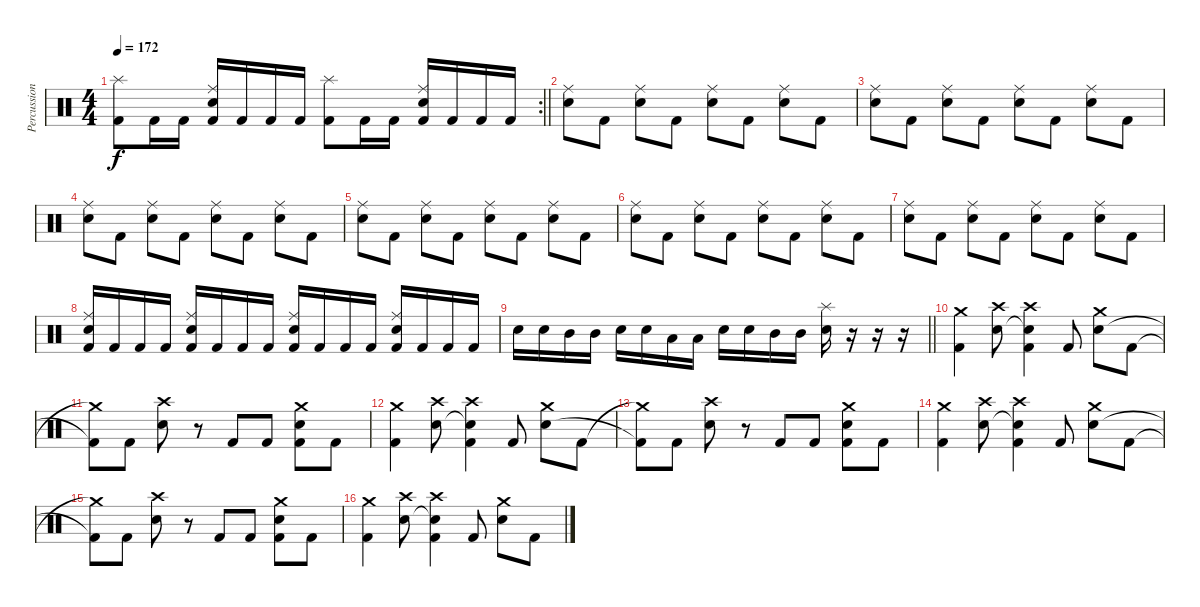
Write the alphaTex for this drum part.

\track ("Percussion" "Percussion") {instrument percussion}
\staff {score}
\articulation defaults
\rc 2
\ts (4 4)
\tempo 172
\clef neutral
\barLineRight lightlight
\ks c
("Splash (hit)" "Kick (hit) 2").8{dy f} "Kick (hit) 2".16 "Kick (hit) 2".16 ("Ride (middle)" "Electric Snare (hit)" "Kick (hit) 2").16 "Kick (hit) 2".16 "Kick (hit) 2".16 "Kick (hit) 2".16 ("Splash (hit)" "Kick (hit) 2").8 "Kick (hit) 2".16 "Kick (hit) 2".16 ("Ride (middle)" "Electric Snare (hit)" "Kick (hit) 2").16 "Kick (hit) 2".16 "Kick (hit) 2".16 "Kick (hit) 2".16 |
("Ride (middle)" "Electric Snare (hit)").8 "Kick (hit) 2".8 ("Ride (middle)" "Electric Snare (hit)").8 "Kick (hit) 2".8 ("Ride (middle)" "Electric Snare (hit)").8 "Kick (hit) 2".8 ("Ride (middle)" "Electric Snare (hit)").8 "Kick (hit) 2".8 |
("Ride (middle)" "Electric Snare (hit)").8 "Kick (hit) 2".8 ("Ride (middle)" "Electric Snare (hit)").8 "Kick (hit) 2".8 ("Ride (middle)" "Electric Snare (hit)").8 "Kick (hit) 2".8 ("Ride (middle)" "Electric Snare (hit)").8 "Kick (hit) 2".8 |
("Ride (middle)" "Electric Snare (hit)").8 "Kick (hit) 2".8 ("Ride (middle)" "Electric Snare (hit)").8 "Kick (hit) 2".8 ("Ride (middle)" "Electric Snare (hit)").8 "Kick (hit) 2".8 ("Ride (middle)" "Electric Snare (hit)").8 "Kick (hit) 2".8 |
("Ride (middle)" "Electric Snare (hit)").8 "Kick (hit) 2".8 ("Ride (middle)" "Electric Snare (hit)").8 "Kick (hit) 2".8 ("Ride (middle)" "Electric Snare (hit)").8 "Kick (hit) 2".8 ("Ride (middle)" "Electric Snare (hit)").8 "Kick (hit) 2".8 |
("Ride (middle)" "Electric Snare (hit)").8 "Kick (hit) 2".8 ("Ride (middle)" "Electric Snare (hit)").8 "Kick (hit) 2".8 ("Ride (middle)" "Electric Snare (hit)").8 "Kick (hit) 2".8 ("Ride (middle)" "Electric Snare (hit)").8 "Kick (hit) 2".8 |
("Ride (middle)" "Electric Snare (hit)").8 "Kick (hit) 2".8 ("Ride (middle)" "Electric Snare (hit)").8 "Kick (hit) 2".8 ("Ride (middle)" "Electric Snare (hit)").8 "Kick (hit) 2".8 ("Ride (middle)" "Electric Snare (hit)").8 "Kick (hit) 2".8 |
("Ride (middle)" "Electric Snare (hit)" "Kick (hit) 2").16 "Kick (hit) 2".16 "Kick (hit) 2".16 "Kick (hit) 2".16 ("Ride (middle)" "Electric Snare (hit)" "Kick (hit) 2").16 "Kick (hit) 2".16 "Kick (hit) 2".16 "Kick (hit) 2".16 ("Ride (middle)" "Electric Snare (hit)" "Kick (hit) 2").16 "Kick (hit) 2".16 "Kick (hit) 2".16 "Kick (hit) 2".16 ("Ride (middle)" "Electric Snare (hit)" "Kick (hit) 2").16 "Kick (hit) 2".16 "Kick (hit) 2".16 "Kick (hit) 2".16 |
\barLineRight lightlight "Snare (hit) 2".16 "Snare (hit) 2".16 "Mid Tom (hit)".16 "Mid Tom (hit)".16 "Snare (hit) 2".16 "Snare (hit) 2".16 "Low Tom (hit)".16 "Low Tom (hit)".16 "Snare (hit) 2".16 "Snare (hit) 2".16 "Mid Tom (hit)".16 "Mid Tom (hit)".16
("Splash (hit)" "Snare (hit) 2").16 r.16 r.16 r.16 |
("Crash medium (hit)" "Kick (hit) 2").4 ("Crash high (hit)" "Electric Snare (hit)").8 ("Crash high (hit)" "Electric Snare (hit)"{t} "Kick (hit) 2").4 "Kick (hit) 2".8 ("Crash medium (hit)" "Electric Snare (hit)").8 "Kick (hit) 2".8 |
("Crash medium (hit)"{t} "Kick (hit) 2"{t}).8 "Kick (hit) 2".8 ("Crash high (hit)" "Electric Snare (hit)").8 r.8 "Kick (hit) 2".8 "Kick (hit) 2".8 ("Crash medium (hit)" "Electric Snare (hit)" "Kick (hit) 2").8 "Kick (hit) 2".8 |
("Crash medium (hit)" "Kick (hit) 2").4 ("Crash high (hit)" "Electric Snare (hit)").8 ("Crash high (hit)" "Electric Snare (hit)"{t} "Kick (hit) 2").4 "Kick (hit) 2".8 ("Crash medium (hit)" "Electric Snare (hit)").8 "Kick (hit) 2".8 |
("Crash medium (hit)"{t} "Kick (hit) 2"{t}).8 "Kick (hit) 2".8 ("Crash high (hit)" "Electric Snare (hit)").8 r.8 "Kick (hit) 2".8 "Kick (hit) 2".8 ("Crash medium (hit)" "Electric Snare (hit)" "Kick (hit) 2").8 "Kick (hit) 2".8 |
("Crash medium (hit)" "Kick (hit) 2").4 ("Crash high (hit)" "Electric Snare (hit)").8 ("Crash high (hit)" "Electric Snare (hit)"{t} "Kick (hit) 2").4 "Kick (hit) 2".8 ("Crash medium (hit)" "Electric Snare (hit)").8 "Kick (hit) 2".8 |
("Crash medium (hit)"{t} "Kick (hit) 2"{t}).8 "Kick (hit) 2".8 ("Crash high (hit)" "Electric Snare (hit)").8 r.8 "Kick (hit) 2".8 "Kick (hit) 2".8 ("Crash medium (hit)" "Electric Snare (hit)" "Kick (hit) 2").8 "Kick (hit) 2".8 |
("Crash medium (hit)" "Kick (hit) 2").4 ("Crash high (hit)" "Electric Snare (hit)").8 ("Crash high (hit)" "Electric Snare (hit)"{t} "Kick (hit) 2").4 "Kick (hit) 2".8 ("Crash medium (hit)" "Electric Snare (hit)").8 "Kick (hit) 2".8
